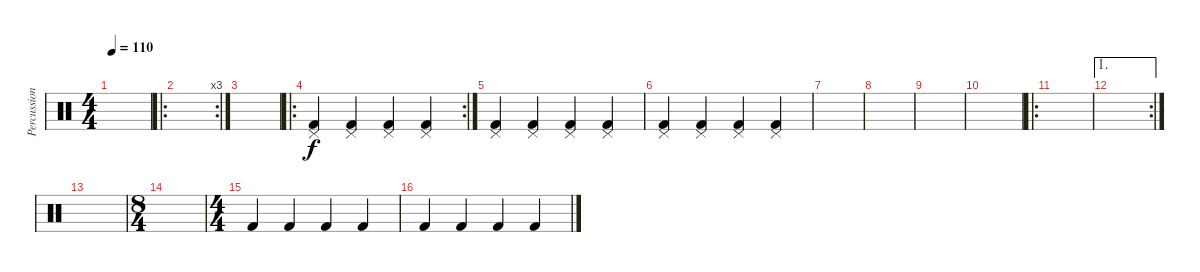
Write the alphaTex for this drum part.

\track ("Percussion" "Percussion") {instrument percussion}
\staff {score}
\articulation defaults
\ts (4 4)
\tempo 110
\clef neutral
\ks c
|
\ro
\rc 3
|
|
\ro
\rc 2
("Pedal Hi-Hat (hit)" "Kick (hit) 2").4 ("Pedal Hi-Hat (hit)" "Kick (hit) 2").4 ("Pedal Hi-Hat (hit)" "Kick (hit) 2").4 ("Pedal Hi-Hat (hit)" "Kick (hit) 2").4 |
("Pedal Hi-Hat (hit)" "Kick (hit) 2").4 ("Pedal Hi-Hat (hit)" "Kick (hit) 2").4 ("Pedal Hi-Hat (hit)" "Kick (hit) 2").4 ("Pedal Hi-Hat (hit)" "Kick (hit) 2").4 |
("Pedal Hi-Hat (hit)" "Kick (hit) 2").4 ("Pedal Hi-Hat (hit)" "Kick (hit) 2").4 ("Pedal Hi-Hat (hit)" "Kick (hit) 2").4 ("Pedal Hi-Hat (hit)" "Kick (hit) 2").4 |
|
|
|
|
\ro
|
\ae 1
\rc 2
|
|
\ts (8 4)
|
\ts (4 4)
"Kick (hit) 2".4{volume 13} "Kick (hit) 2".4{volume 13} "Kick (hit) 2".4{volume 13} "Kick (hit) 2".4{volume 13} |
"Kick (hit) 2".4{volume 13} "Kick (hit) 2".4{volume 13} "Kick (hit) 2".4{volume 13} "Kick (hit) 2".4{volume 13}
